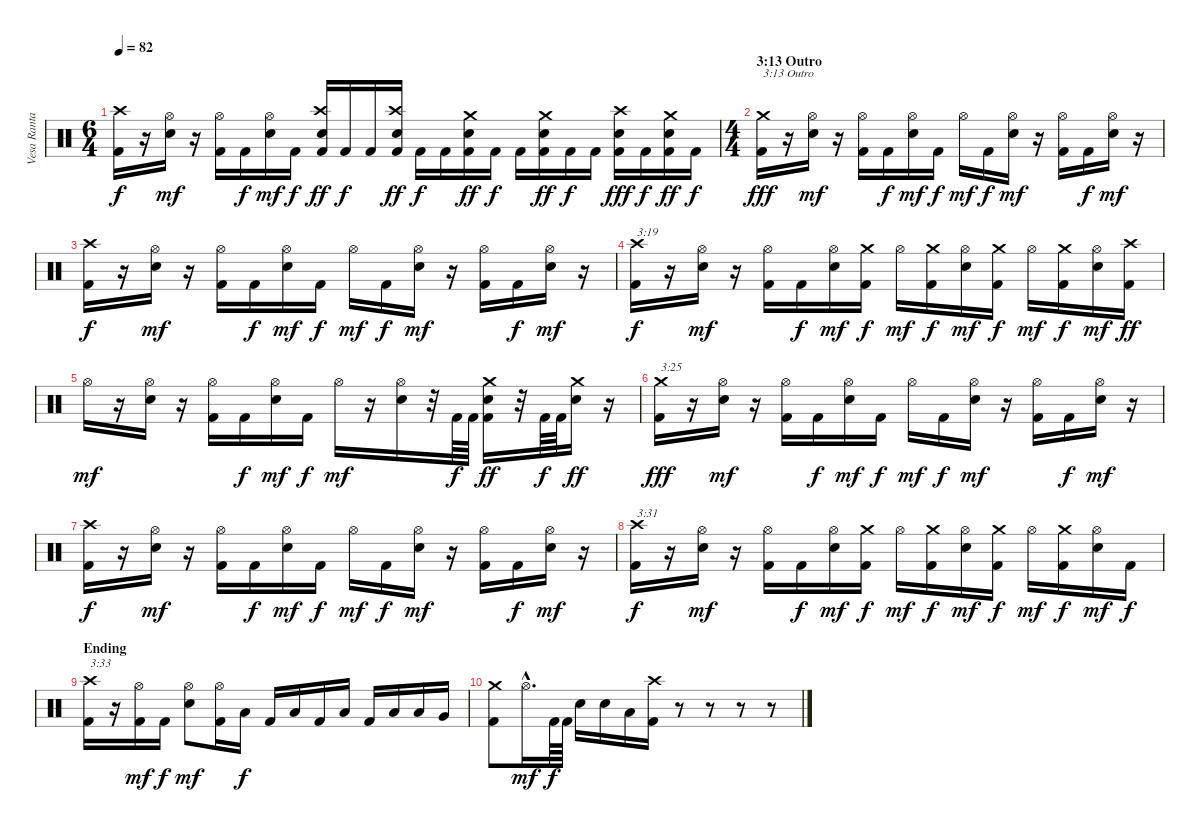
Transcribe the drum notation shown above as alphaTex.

\track ("Vesa Ranta (Drums)" "Vesa Ranta") {instrument percussion}
\staff {score}
\articulation defaults
\ts (6 4)
\tempo 82
\clef neutral
\ks c
("Kick (hit) 2" "Crash high (hit)").16{dy f} r.16 ("Electric Snare (hit)" "Hi-Hat (open)").16{dy mf} r.16 ("Kick (hit) 2" "Hi-Hat (open)").16 "Kick (hit) 2".16{dy f} ("Electric Snare (hit)" "Hi-Hat (open)").16{dy mf} "Kick (hit) 2".16{dy f} ("Kick (hit) 2" "Electric Snare (hit)" "Crash high (hit)").16{dy ff} "Kick (hit) 2".16{dy f} "Kick (hit) 2".16 ("Kick (hit) 2" "Electric Snare (hit)" "Crash high (hit)").16{dy ff} "Kick (hit) 2".16{dy f} "Kick (hit) 2".16 ("Kick (hit) 2" "Electric Snare (hit)" "Crash medium (hit)").16{dy ff} "Kick (hit) 2".16{dy f} "Kick (hit) 2".16 ("Kick (hit) 2" "Electric Snare (hit)" "Crash medium (hit)").16{dy ff} "Kick (hit) 2".16{dy f} "Kick (hit) 2".16 ("Kick (hit) 2" "Electric Snare (hit)" "Crash high (hit)").16{dy fff} "Kick (hit) 2".16{dy f} ("Kick (hit) 2" "Electric Snare (hit)" "Crash medium (hit)").16{dy ff} "Kick (hit) 2".16{dy f} |
\ts (4 4)
\section ("" "3:13 Outro")
("Kick (hit) 2" "Crash medium (hit)").16{txt "3:13 Outro" dy fff} r.16 ("Electric Snare (hit)" "Hi-Hat (open)").16{dy mf} r.16 ("Kick (hit) 2" "Hi-Hat (open)").16 "Kick (hit) 2".16{dy f} ("Electric Snare (hit)" "Hi-Hat (open)").16{dy mf} "Kick (hit) 2".16{dy f} "Hi-Hat (open)".16{dy mf} "Kick (hit) 2".16{dy f} ("Electric Snare (hit)" "Hi-Hat (open)").16{dy mf} r.16 ("Kick (hit) 2" "Hi-Hat (open)").16 "Kick (hit) 2".16{dy f} ("Electric Snare (hit)" "Hi-Hat (open)").16{dy mf} r.16 |
("Kick (hit) 2" "Crash high (hit)").16{dy f} r.16 ("Electric Snare (hit)" "Hi-Hat (open)").16{dy mf} r.16 ("Kick (hit) 2" "Hi-Hat (open)").16 "Kick (hit) 2".16{dy f} ("Electric Snare (hit)" "Hi-Hat (open)").16{dy mf} "Kick (hit) 2".16{dy f} "Hi-Hat (open)".16{dy mf} "Kick (hit) 2".16{dy f} ("Electric Snare (hit)" "Hi-Hat (open)").16{dy mf} r.16 ("Kick (hit) 2" "Hi-Hat (open)").16 "Kick (hit) 2".16{dy f} ("Electric Snare (hit)" "Hi-Hat (open)").16{dy mf} r.16 |
("Kick (hit) 2" "Crash high (hit)").16{txt "3:19" dy f} r.16 ("Electric Snare (hit)" "Hi-Hat (open)").16{dy mf} r.16 ("Kick (hit) 2" "Hi-Hat (open)").16 "Kick (hit) 2".16{dy f} ("Electric Snare (hit)" "Hi-Hat (open)").16{dy mf} ("Kick (hit) 2" "Crash medium (hit)").16{dy f} "Hi-Hat (open)".16{dy mf} ("Kick (hit) 2" "Crash medium (hit)").16{dy f} ("Electric Snare (hit)" "Hi-Hat (open)").16{dy mf} ("Kick (hit) 2" "Crash medium (hit)").16{dy f} "Hi-Hat (open)".16{dy mf} ("Kick (hit) 2" "Crash medium (hit)").16{dy f} ("Electric Snare (hit)" "Hi-Hat (open)").16{dy mf} ("Kick (hit) 2" "Crash high (hit)").16{dy ff} |
"Hi-Hat (open)".16{dy mf} r.16 ("Electric Snare (hit)" "Hi-Hat (open)").16 r.16 ("Kick (hit) 2" "Hi-Hat (open)").16 "Kick (hit) 2".16{dy f} ("Electric Snare (hit)" "Hi-Hat (open)").16{dy mf} "Kick (hit) 2".16{dy f} "Hi-Hat (open)".16{dy mf} r.16 ("Electric Snare (hit)" "Hi-Hat (open)").16 r.32 "Kick (hit) 2".64{dy f} "Kick (hit) 2".64 ("Kick (hit) 2" "Electric Snare (hit)" "Crash medium (hit)").16{dy ff} r.32 "Kick (hit) 2".64{dy f} "Kick (hit) 2".64 ("Electric Snare (hit)" "Crash medium (hit)").16{dy ff} r.16 |
("Kick (hit) 2" "Crash medium (hit)").16{txt "3:25" dy fff} r.16 ("Electric Snare (hit)" "Hi-Hat (open)").16{dy mf} r.16 ("Kick (hit) 2" "Hi-Hat (open)").16 "Kick (hit) 2".16{dy f} ("Electric Snare (hit)" "Hi-Hat (open)").16{dy mf} "Kick (hit) 2".16{dy f} "Hi-Hat (open)".16{dy mf} "Kick (hit) 2".16{dy f} ("Electric Snare (hit)" "Hi-Hat (open)").16{dy mf} r.16 ("Kick (hit) 2" "Hi-Hat (open)").16 "Kick (hit) 2".16{dy f} ("Electric Snare (hit)" "Hi-Hat (open)").16{dy mf} r.16 |
("Kick (hit) 2" "Crash high (hit)").16{dy f} r.16 ("Electric Snare (hit)" "Hi-Hat (open)").16{dy mf} r.16 ("Kick (hit) 2" "Hi-Hat (open)").16 "Kick (hit) 2".16{dy f} ("Electric Snare (hit)" "Hi-Hat (open)").16{dy mf} "Kick (hit) 2".16{dy f} "Hi-Hat (open)".16{dy mf} "Kick (hit) 2".16{dy f} ("Electric Snare (hit)" "Hi-Hat (open)").16{dy mf} r.16 ("Kick (hit) 2" "Hi-Hat (open)").16 "Kick (hit) 2".16{dy f} ("Electric Snare (hit)" "Hi-Hat (open)").16{dy mf} r.16 |
("Kick (hit) 2" "Crash high (hit)").16{txt "3:31" dy f} r.16 ("Electric Snare (hit)" "Hi-Hat (open)").16{dy mf} r.16 ("Kick (hit) 2" "Hi-Hat (open)").16 "Kick (hit) 2".16{dy f} ("Electric Snare (hit)" "Hi-Hat (open)").16{dy mf} ("Kick (hit) 2" "Crash medium (hit)").16{dy f} "Hi-Hat (open)".16{dy mf} ("Kick (hit) 2" "Crash medium (hit)").16{dy f} ("Electric Snare (hit)" "Hi-Hat (open)").16{dy mf} ("Kick (hit) 2" "Crash medium (hit)").16{dy f} "Hi-Hat (open)".16{dy mf} ("Kick (hit) 2" "Crash medium (hit)").16{dy f} ("Electric Snare (hit)" "Hi-Hat (open)").16{dy mf} "Kick (hit) 2".16{dy f} |
\section ("" "Ending")
("Kick (hit) 2" "Crash high (hit)").16{txt "3:33"} r.16 ("Kick (hit) 2" "Hi-Hat (open)").16{dy mf} "Kick (hit) 2".16{dy f} ("Electric Snare (hit)" "Hi-Hat (open)").8{dy mf} ("Kick (hit) 2" "Hi-Hat (open)").16 "Low Tom (hit)".16{dy f} "Kick (hit) 2".16 "Low Tom (hit)".16 "Kick (hit) 2".16 "Low Tom (hit)".16 "Kick (hit) 2".16 "Low Tom (hit)".16 "Low Tom (hit)".16 "Very Low Tom (hit)".16 |
("Kick (hit) 2" "Crash medium (hit)").8 "Hi-Hat (open)"{hac}.16{d dy mf} "Kick (hit) 2".64{dy f} "Kick (hit) 2".64 "Electric Snare (hit)".16 "Electric Snare (hit)".16 "Low Tom (hit)".16 ("Kick (hit) 2" "Crash high (hit)").16 r.8 r.8 r.8 r.8
